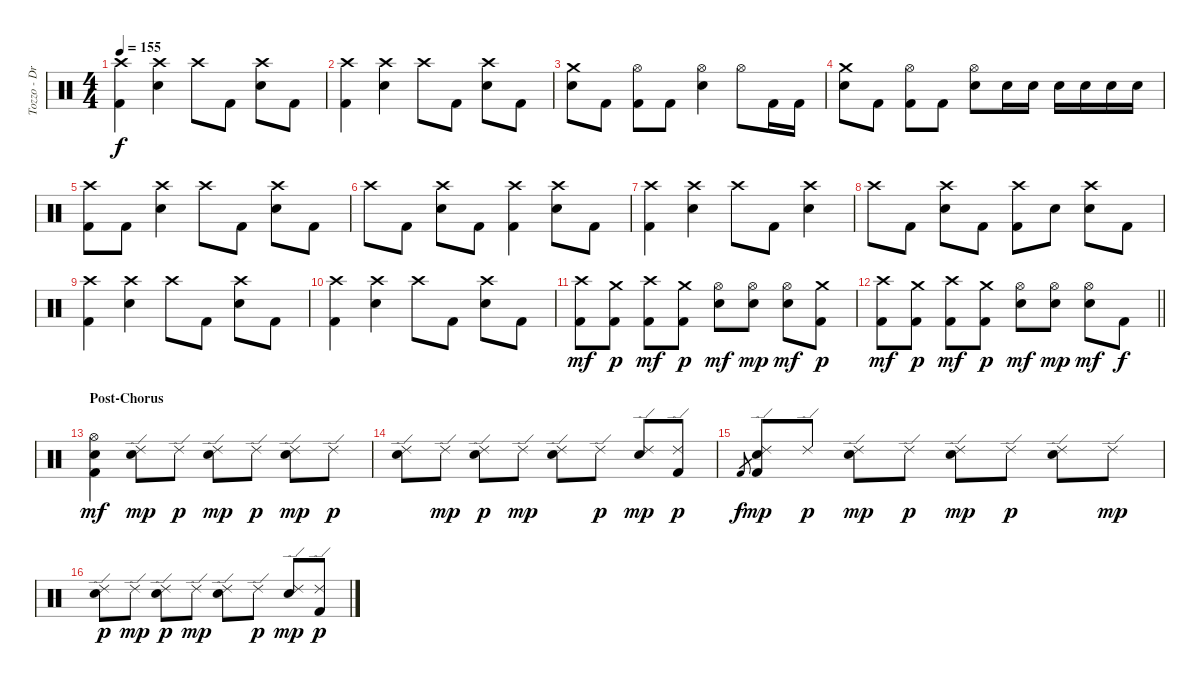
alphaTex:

\track ("Tozzo - Drums" "Tozzo - Dr") {instrument percussion}
\staff {score}
\articulation defaults
\ts (4 4)
\tempo 155
\clef neutral
\ks c
("Crash high (hit)" "Kick (hit) 2").4{dy f} ("Crash high (hit)" "Snare (hit) 2").4 "Crash high (hit)".8 "Kick (hit) 2".8 ("Crash high (hit)" "Snare (hit) 2").8 "Kick (hit) 2".8 |
("Crash high (hit)" "Kick (hit) 2").4 ("Crash high (hit)" "Snare (hit) 2").4 "Crash high (hit)".8 "Kick (hit) 2".8 ("Crash high (hit)" "Snare (hit) 2").8 "Kick (hit) 2".8 |
("Crash medium (hit)" "Snare (hit) 2").8 "Kick (hit) 2".8 ("Hi-Hat (open)" "Kick (hit) 2").8 "Kick (hit) 2".8 ("Hi-Hat (open)" "Snare (hit) 2").4 "Hi-Hat (open)".8 "Kick (hit) 2".16 "Kick (hit) 2".16 |
("Crash medium (hit)" "Snare (hit) 2").8 "Kick (hit) 2".8 ("Hi-Hat (open)" "Kick (hit) 2").8 "Kick (hit) 2".8 ("Hi-Hat (open)" "Snare (hit) 2").8 "Snare (hit) 2".16 "Snare (hit) 2".16 "Snare (hit) 2".16 "Snare (hit) 2".16 "Snare (hit) 2".16 "Snare (hit) 2".16 |
("Crash high (hit)" "Kick (hit) 2").8 "Kick (hit) 2".8 ("Crash high (hit)" "Snare (hit) 2").4 "Crash high (hit)".8 "Kick (hit) 2".8 ("Crash high (hit)" "Snare (hit) 2").8 "Kick (hit) 2".8 |
"Crash high (hit)".8 "Kick (hit) 2".8 ("Crash high (hit)" "Snare (hit) 2").8 "Kick (hit) 2".8 ("Crash high (hit)" "Kick (hit) 2").4 ("Crash high (hit)" "Snare (hit) 2").8 "Kick (hit) 2".8 |
("Crash high (hit)" "Kick (hit) 2").4 ("Crash high (hit)" "Snare (hit) 2").4 "Crash high (hit)".8 "Kick (hit) 2".8 ("Crash high (hit)" "Snare (hit) 2").4 |
"Crash high (hit)".8 "Kick (hit) 2".8 ("Crash high (hit)" "Snare (hit) 2").8 "Kick (hit) 2".8 ("Crash high (hit)" "Kick (hit) 2").8 "Snare (hit) 2".8 ("Crash high (hit)" "Snare (hit) 2").8 "Kick (hit) 2".8 |
("Crash high (hit)" "Kick (hit) 2").4 ("Crash high (hit)" "Snare (hit) 2").4 "Crash high (hit)".8 "Kick (hit) 2".8 ("Crash high (hit)" "Snare (hit) 2").8 "Kick (hit) 2".8 |
("Crash high (hit)" "Kick (hit) 2").4 ("Crash high (hit)" "Snare (hit) 2").4 "Crash high (hit)".8 "Kick (hit) 2".8 ("Crash high (hit)" "Snare (hit) 2").8 "Kick (hit) 2".8 |
("Crash high (hit)" "Kick (hit) 2").8{dy mf} ("Crash medium (hit)" "Kick (hit) 2").8{dy p} ("Crash high (hit)" "Kick (hit) 2").8{dy mf} ("Crash medium (hit)" "Kick (hit) 2").8{dy p} ("Hi-Hat (open)" "Snare (hit) 2").8{dy mf} ("Hi-Hat (open)" "Snare (hit) 2").8{dy mp} ("Hi-Hat (open)" "Snare (hit) 2").8{dy mf} ("Crash medium (hit)" "Kick (hit) 2").8{dy p} |
\barLineRight lightlight
("Crash high (hit)" "Kick (hit) 2").8{dy mf} ("Crash medium (hit)" "Kick (hit) 2").8{dy p} ("Crash high (hit)" "Kick (hit) 2").8{dy mf} ("Crash medium (hit)" "Kick (hit) 2").8{dy p} ("Hi-Hat (open)" "Snare (hit) 2").8{dy mf} ("Hi-Hat (open)" "Snare (hit) 2").8{dy mp} ("Hi-Hat (open)" "Snare (hit) 2").8{dy mf} "Kick (hit) 2".8{dy f} |
\section ("" "Post-Chorus")
("Hi-Hat (open)" "Snare (hit) 2" "Kick (hit) 2").4{dy mf} ("Ride (edge) 2" "Snare (hit) 2").8{dy mp} "Ride (edge) 2".8{dy p} ("Ride (edge) 2" "Snare (hit) 2").8{dy mp} "Ride (edge) 2".8{dy p} ("Ride (edge) 2" "Snare (hit) 2").8{dy mp} "Ride (edge) 2".8{dy p} |
("Ride (edge) 2" "Snare (hit) 2").8 "Ride (edge) 2".8{dy mp} ("Ride (edge) 2" "Snare (hit) 2").8{dy p} "Ride (edge) 2".8{dy mp} ("Ride (edge) 2" "Snare (hit) 2").8 "Ride (edge) 2".8{dy p} ("Ride (edge) 2" "Snare (hit) 2").8{dy mp} ("Ride (edge) 2" "Kick (hit) 2").8{dy p} |
"Kick (hit) 2".8{gr dy f} ("Ride (edge) 2" "Snare (hit) 2" "Kick (hit) 2").8{dy mp} "Ride (edge) 2".8{dy p} ("Ride (edge) 2" "Snare (hit) 2").8{dy mp} "Ride (edge) 2".8{dy p} ("Ride (edge) 2" "Snare (hit) 2").8{dy mp} "Ride (edge) 2".8{dy p} ("Ride (edge) 2" "Snare (hit) 2").8 "Ride (edge) 2".8{dy mp} |
("Ride (edge) 2" "Snare (hit) 2").8{dy p} "Ride (edge) 2".8{dy mp} ("Ride (edge) 2" "Snare (hit) 2").8{dy p} "Ride (edge) 2".8{dy mp} ("Ride (edge) 2" "Snare (hit) 2").8 "Ride (edge) 2".8{dy p} ("Ride (edge) 2" "Snare (hit) 2").8{dy mp} ("Ride (edge) 2" "Kick (hit) 2").8{dy p}
